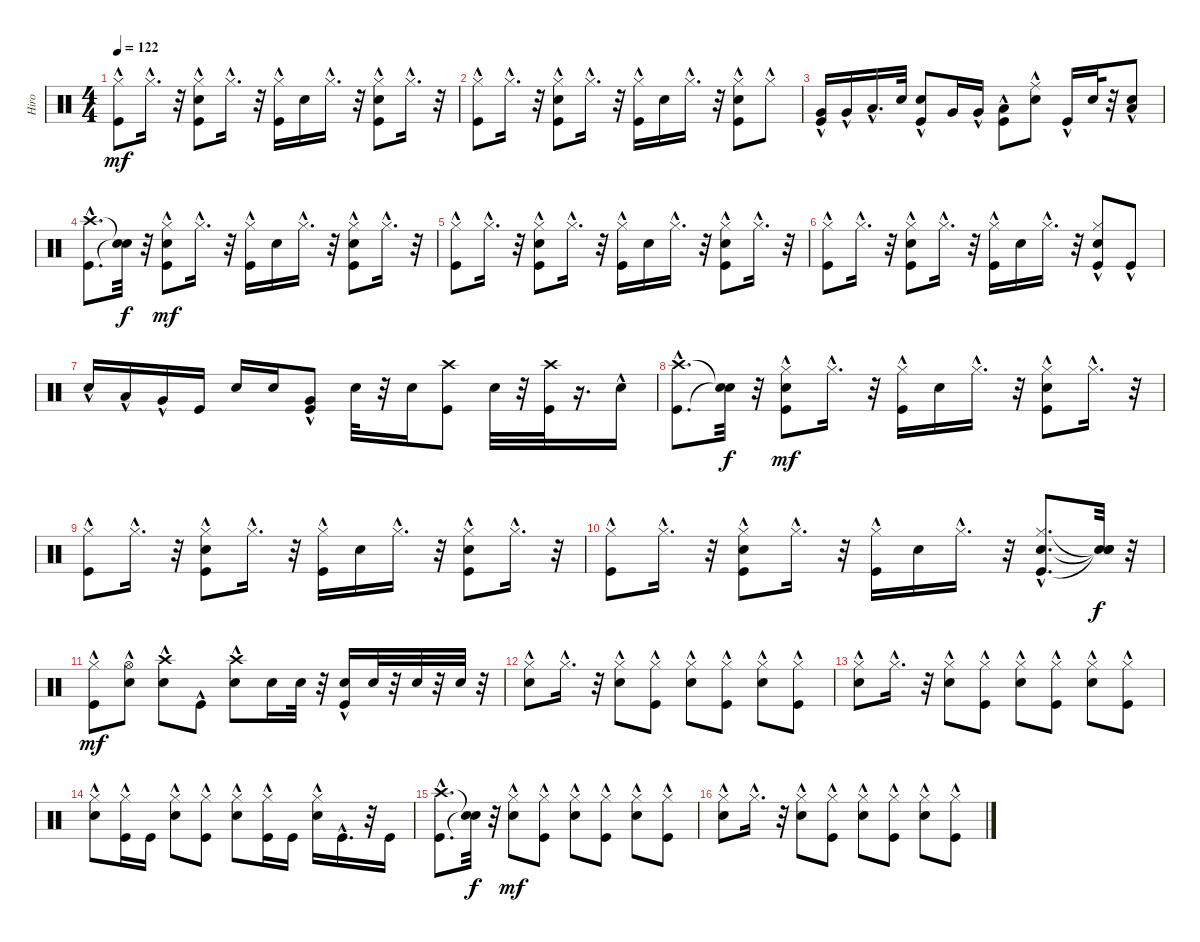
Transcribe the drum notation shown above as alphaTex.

\track ("Hiro" "Hiro") {instrument percussion}
\staff {score}
\articulation defaults
\ts (4 4)
\tempo 122
\clef neutral
\ks c
("Kick (hit)"{hac} "Hi-Hat (closed)"{hac}).8{dy mf} "Hi-Hat (closed)"{hac}.16{d} r.32 ("Kick (hit)"{hac} "Electric Snare (hit)"{hac} "Hi-Hat (closed)"{hac}).8 "Hi-Hat (closed)"{hac}.16{d} r.32 ("Kick (hit)"{hac} "Hi-Hat (closed)"{hac}).16 "Electric Snare (hit)".16 "Hi-Hat (closed)"{hac}.16{d} r.32 ("Electric Snare (hit)"{hac} "Hi-Hat (closed)"{hac} "Kick (hit)"{hac}).8 "Hi-Hat (closed)"{hac}.16{d} r.32 |
("Kick (hit)"{hac} "Hi-Hat (closed)"{hac}).8 "Hi-Hat (closed)"{hac}.16{d} r.32 ("Kick (hit)"{hac} "Electric Snare (hit)"{hac} "Hi-Hat (closed)"{hac}).8 "Hi-Hat (closed)"{hac}.16{d} r.32 ("Kick (hit)"{hac} "Hi-Hat (closed)"{hac}).16 "Electric Snare (hit)".16 "Hi-Hat (closed)"{hac}.16{d} r.32 ("Electric Snare (hit)"{hac} "Hi-Hat (closed)"{hac} "Kick (hit)"{hac}).8 "Hi-Hat (closed)"{hac}.8 |
("Very Low Tom (hit)" "Kick (hit)"{hac}).16 "Very Low Tom (hit)"{hac}.16 "Low Tom (hit)"{hac}.16{d} "Electric Snare (hit)".32 ("Electric Snare (hit)"{hac} "Kick (hit)"{hac}).8 "Very Low Tom (hit)".16 "Very Low Tom (hit)"{hac}.16 ("Low Tom (hit)"{hac} "Kick (hit)"{hac}).8 ("Ride (middle)"{hac} "Electric Snare (hit)").8 "Kick (hit)"{hac}.16 "Electric Snare (hit)".32 r.32 ("Low Tom (hit)"{hac} "Electric Snare (hit)"{hac}).8 |
("Kick (hit)"{hac} "Crash high (hit)"{hac}).8{d} ("Snare (hit)"{t} "Snare (hit)"{t}).32{dy f} r.32 ("Kick (hit)"{hac} "Electric Snare (hit)"{hac} "Hi-Hat (closed)").8{dy mf} "Hi-Hat (closed)"{hac}.16{d} r.32 ("Kick (hit)"{hac} "Hi-Hat (closed)"{hac}).16 "Electric Snare (hit)".16 "Hi-Hat (closed)"{hac}.16{d} r.32 ("Electric Snare (hit)"{hac} "Hi-Hat (closed)"{hac} "Kick (hit)"{hac}).8 "Hi-Hat (closed)"{hac}.16{d} r.32 |
("Kick (hit)"{hac} "Hi-Hat (closed)"{hac}).8 "Hi-Hat (closed)"{hac}.16{d} r.32 ("Kick (hit)"{hac} "Electric Snare (hit)"{hac} "Hi-Hat (closed)"{hac}).8 "Hi-Hat (closed)"{hac}.16{d} r.32 ("Kick (hit)"{hac} "Hi-Hat (closed)"{hac}).16 "Electric Snare (hit)".16 "Hi-Hat (closed)"{hac}.16{d} r.32 ("Electric Snare (hit)"{hac} "Hi-Hat (closed)"{hac} "Kick (hit)"{hac}).8 "Hi-Hat (closed)"{hac}.16{d} r.32 |
("Kick (hit)"{hac} "Hi-Hat (closed)"{hac}).8 "Hi-Hat (closed)"{hac}.16{d} r.32 ("Kick (hit)"{hac} "Electric Snare (hit)"{hac} "Hi-Hat (closed)"{hac}).8 "Hi-Hat (closed)"{hac}.16{d} r.32 ("Kick (hit)"{hac} "Hi-Hat (closed)"{hac}).16 "Electric Snare (hit)".16 "Hi-Hat (closed)"{hac}.16{d} r.32 ("Electric Snare (hit)"{hac} "Hi-Hat (closed)"{hac} "Kick (hit)").8 "Kick (hit)"{hac}.8 |
"Electric Snare (hit)"{hac}.16 "Low Tom (hit)"{hac}.16 "Very Low Tom (hit)"{hac}.16 "Kick (hit)".16 "Electric Snare (hit)".16 "Electric Snare (hit)".16 ("Very Low Tom (hit)"{hac} "Kick (hit)"{hac}).8 "Electric Snare (hit)".32 r.32 "Electric Snare (hit)".16 ("Crash high (hit)" "Kick (hit)").8 "Electric Snare (hit)".32 r.32 ("Crash high (hit)" "Kick (hit)").32 r.16{d} "Electric Snare (hit)"{hac}.16 |
("Kick (hit)"{hac} "Crash high (hit)"{hac}).8{d} ("Snare (hit)"{t} "Snare (hit)"{t}).32{dy f} r.32 ("Kick (hit)"{hac} "Electric Snare (hit)"{hac} "Hi-Hat (closed)").8{dy mf} "Hi-Hat (closed)"{hac}.16{d} r.32 ("Kick (hit)"{hac} "Hi-Hat (closed)"{hac}).16 "Electric Snare (hit)".16 "Hi-Hat (closed)"{hac}.16{d} r.32 ("Electric Snare (hit)"{hac} "Hi-Hat (closed)"{hac} "Kick (hit)"{hac}).8 "Hi-Hat (closed)"{hac}.16{d} r.32 |
("Kick (hit)"{hac} "Hi-Hat (closed)"{hac}).8 "Hi-Hat (closed)"{hac}.16{d} r.32 ("Kick (hit)"{hac} "Electric Snare (hit)"{hac} "Hi-Hat (closed)"{hac}).8 "Hi-Hat (closed)"{hac}.16{d} r.32 ("Kick (hit)"{hac} "Hi-Hat (closed)"{hac}).16 "Electric Snare (hit)".16 "Hi-Hat (closed)"{hac}.16{d} r.32 ("Electric Snare (hit)"{hac} "Hi-Hat (closed)"{hac} "Kick (hit)"{hac}).8 "Hi-Hat (closed)"{hac}.16{d} r.32 |
("Kick (hit)"{hac} "Hi-Hat (closed)"{hac}).8 "Hi-Hat (closed)"{hac}.16{d} r.32 ("Kick (hit)"{hac} "Electric Snare (hit)"{hac} "Hi-Hat (closed)"{hac}).8 "Hi-Hat (closed)"{hac}.16{d} r.32 ("Kick (hit)"{hac} "Hi-Hat (closed)"{hac}).16 "Electric Snare (hit)".16 "Hi-Hat (closed)"{hac}.16{d} r.32 ("Electric Snare (hit)"{hac} "Hi-Hat (closed)"{hac} "Kick (hit)"{hac}).8{d} ("Snare (hit)"{t} "Snare (hit)"{t} "Snare (hit)"{t}).32{dy f} r.32 |
("Hi-Hat (closed)"{hac} "Kick (hit)"{hac}).8{dy mf} ("Electric Snare (hit)" "Hi-Hat (open)"{hac}).8 ("Electric Snare (hit)"{hac} "Crash high (hit)"{hac}).8 "Kick (hit)"{hac}.8 ("Electric Snare (hit)" "Crash high (hit)"{hac}).8 "Electric Snare (hit)".16 "Electric Snare (hit)".32 r.32 ("Electric Snare (hit)" "Kick (hit)"{hac}).16 "Electric Snare (hit)".32 r.32 "Electric Snare (hit)".32 r.32 "Electric Snare (hit)".32 r.32 |
("Hi-Hat (closed)" "Electric Snare (hit)"{hac}).8 "Hi-Hat (closed)"{hac}.16{d} r.32 ("Electric Snare (hit)"{hac} "Hi-Hat (closed)"{hac}).8 ("Hi-Hat (closed)"{hac} "Kick (hit)"{hac}).8 ("Electric Snare (hit)"{hac} "Hi-Hat (closed)"{hac}).8 ("Hi-Hat (closed)"{hac} "Kick (hit)"{hac}).8 ("Electric Snare (hit)"{hac} "Hi-Hat (closed)"{hac}).8 ("Hi-Hat (closed)"{hac} "Kick (hit)"{hac}).8 |
("Electric Snare (hit)"{hac} "Hi-Hat (closed)"{hac}).8 "Hi-Hat (closed)"{hac}.16{d} r.32 ("Hi-Hat (closed)"{hac} "Electric Snare (hit)"{hac}).8 ("Kick (hit)"{hac} "Hi-Hat (closed)"{hac}).8 ("Hi-Hat (closed)"{hac} "Electric Snare (hit)"{hac}).8 ("Kick (hit)"{hac} "Hi-Hat (closed)"{hac}).8 ("Hi-Hat (closed)"{hac} "Electric Snare (hit)"{hac}).8 ("Kick (hit)"{hac} "Hi-Hat (closed)"{hac}).8 |
("Electric Snare (hit)"{hac} "Hi-Hat (closed)"{hac}).8 ("Kick (hit)" "Hi-Hat (closed)"{hac}).16 "Kick (hit)".16 ("Electric Snare (hit)"{hac} "Hi-Hat (closed)"{hac}).8 ("Kick (hit)"{hac} "Hi-Hat (closed)"{hac}).8 ("Electric Snare (hit)"{hac} "Hi-Hat (closed)"{hac}).8 ("Kick (hit)" "Hi-Hat (closed)"{hac}).16 "Kick (hit)".16 ("Electric Snare (hit)"{hac} "Hi-Hat (closed)"{hac}).16 "Kick (hit)"{hac}.16{d} r.32 "Kick (hit)".16 |
("Kick (hit)"{hac} "Crash high (hit)"{hac}).8{d} ("Snare (hit)"{t} "Snare (hit)"{t}).32{dy f} r.32 ("Hi-Hat (closed)" "Electric Snare (hit)"{hac}).8{dy mf} ("Kick (hit)"{hac} "Hi-Hat (closed)"{hac}).8 ("Hi-Hat (closed)"{hac} "Electric Snare (hit)"{hac}).8 ("Kick (hit)"{hac} "Hi-Hat (closed)"{hac}).8 ("Hi-Hat (closed)"{hac} "Electric Snare (hit)"{hac}).8 ("Kick (hit)"{hac} "Hi-Hat (closed)"{hac}).8 |
("Electric Snare (hit)"{hac} "Hi-Hat (closed)"{hac}).8 "Hi-Hat (closed)"{hac}.16{d} r.32 ("Hi-Hat (closed)"{hac} "Electric Snare (hit)"{hac}).8 ("Kick (hit)"{hac} "Hi-Hat (closed)"{hac}).8 ("Hi-Hat (closed)"{hac} "Electric Snare (hit)"{hac}).8 ("Kick (hit)"{hac} "Hi-Hat (closed)"{hac}).8 ("Hi-Hat (closed)"{hac} "Electric Snare (hit)"{hac}).8 ("Kick (hit)"{hac} "Hi-Hat (closed)"{hac}).8
